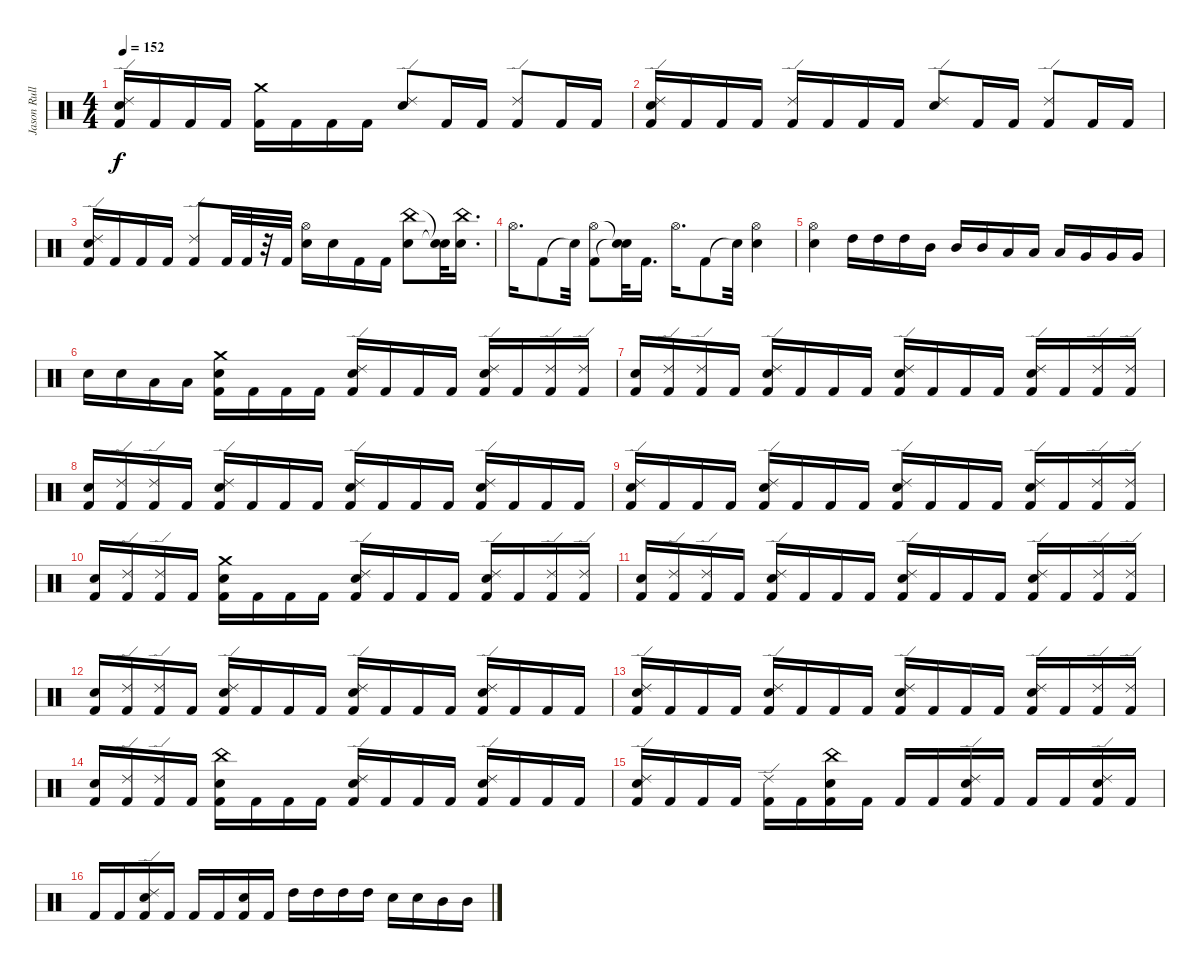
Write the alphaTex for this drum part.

\track ("Jason Rullo" "Jason Rull") {instrument percussion}
\staff {score}
\articulation defaults
\ts (4 4)
\tempo 152
\clef neutral
\ks c
("Electric Snare (hit)" "Ride (edge) 2" "Kick (hit) 2").16{dy f} "Kick (hit) 2".16 "Kick (hit) 2".16 "Kick (hit) 2".16 ("Crash medium (hit)" "Kick (hit) 2").16 "Kick (hit) 2".16 "Kick (hit) 2".16 "Kick (hit) 2".16 ("Electric Snare (hit)" "Ride (edge) 2").8 "Kick (hit) 2".16 "Kick (hit) 2".16 ("Kick (hit) 2" "Ride (edge) 2").8 "Kick (hit) 2".16 "Kick (hit) 2".16 |
("Kick (hit) 2" "Electric Snare (hit)" "Ride (edge) 2").16 "Kick (hit) 2".16 "Kick (hit) 2".16 "Kick (hit) 2".16 ("Ride (edge) 2" "Kick (hit) 2").16 "Kick (hit) 2".16 "Kick (hit) 2".16 "Kick (hit) 2".16 ("Electric Snare (hit)" "Ride (edge) 2").8 "Kick (hit) 2".16 "Kick (hit) 2".16 ("Kick (hit) 2" "Ride (edge) 2").8 "Kick (hit) 2".16 "Kick (hit) 2".16 |
("Kick (hit) 2" "Electric Snare (hit)" "Ride (edge) 2").16 "Kick (hit) 2".16 "Kick (hit) 2".16 "Kick (hit) 2".16 ("Kick (hit) 2" "Ride (edge) 2").8 "Kick (hit) 2".32 "Kick (hit) 2".32 r.32 "Kick (hit) 2".32 ("Hi-Hat (open)" "Electric Snare (hit)").16 "Electric Snare (hit)".16 "Kick (hit) 2".16 "Kick (hit) 2".16 ("China (hit)" "Electric Snare (hit)").8 ("Snare (hit)"{t} "Snare (hit)"{t}).32 ("China (hit)" "Electric Snare (hit)").16{d} |
"Hi-Hat (open)".16{d} "Kick (hit) 2".8 "Snare (hit)"{t}.32 ("Hi-Hat (open)" "Kick (hit) 2").8 ("Snare (hit)"{t} "Snare (hit)"{t}).32 "Kick (hit) 2".16{d} "Hi-Hat (open)".16{d} "Kick (hit) 2".8 "Snare (hit)"{t}.32 ("Hi-Hat (open)" "Electric Snare (hit)").4 |
("Hi-Hat (open)" "Electric Snare (hit)").4 "High Tom (hit)".16 "High Tom (hit)".16 "High Tom (hit)".16 "Mid Tom (hit)".16 "Mid Tom (hit)".16 "Mid Tom (hit)".16 "Low Tom (hit)".16 "Low Tom (hit)".16 "Low Tom (hit)".16 "Very Low Tom (hit)".16 "Very Low Tom (hit)".16 "Very Low Tom (hit)".16 |
"Electric Snare (hit)".16 "Electric Snare (hit)".16 "Low Tom (hit)".16 "Low Tom (hit)".16 ("Crash medium (hit)" "Electric Snare (hit)" "Kick (hit) 2").16 "Kick (hit) 2".16 "Kick (hit) 2".16 "Kick (hit) 2".16 ("Ride (edge) 2" "Electric Snare (hit)" "Kick (hit) 2").16 "Kick (hit) 2".16 "Kick (hit) 2".16 "Kick (hit) 2".16 ("Ride (edge) 2" "Electric Snare (hit)" "Kick (hit) 2").16 "Kick (hit) 2".16 ("Ride (edge) 2" "Kick (hit) 2").16 ("Ride (edge) 2" "Kick (hit) 2").16 |
("Electric Snare (hit)" "Kick (hit) 2").16 ("Ride (edge) 2" "Kick (hit) 2").16 ("Ride (edge) 2" "Kick (hit) 2").16 "Kick (hit) 2".16 ("Ride (edge) 2" "Electric Snare (hit)" "Kick (hit) 2").16 "Kick (hit) 2".16 "Kick (hit) 2".16 "Kick (hit) 2".16 ("Ride (edge) 2" "Electric Snare (hit)" "Kick (hit) 2").16 "Kick (hit) 2".16 "Kick (hit) 2".16 "Kick (hit) 2".16 ("Ride (edge) 2" "Electric Snare (hit)" "Kick (hit) 2").16 "Kick (hit) 2".16 ("Ride (edge) 2" "Kick (hit) 2").16 ("Ride (edge) 2" "Kick (hit) 2").16 |
("Electric Snare (hit)" "Kick (hit) 2").16 ("Ride (edge) 2" "Kick (hit) 2").16 ("Ride (edge) 2" "Kick (hit) 2").16 "Kick (hit) 2".16 ("Ride (edge) 2" "Electric Snare (hit)" "Kick (hit) 2").16 "Kick (hit) 2".16 "Kick (hit) 2".16 "Kick (hit) 2".16 ("Ride (edge) 2" "Electric Snare (hit)" "Kick (hit) 2").16 "Kick (hit) 2".16 "Kick (hit) 2".16 "Kick (hit) 2".16 ("Ride (edge) 2" "Electric Snare (hit)" "Kick (hit) 2").16 "Kick (hit) 2".16 "Kick (hit) 2".16 "Kick (hit) 2".16 |
("Ride (edge) 2" "Electric Snare (hit)" "Kick (hit) 2").16 "Kick (hit) 2".16 "Kick (hit) 2".16 "Kick (hit) 2".16 ("Ride (edge) 2" "Electric Snare (hit)" "Kick (hit) 2").16 "Kick (hit) 2".16 "Kick (hit) 2".16 "Kick (hit) 2".16 ("Ride (edge) 2" "Electric Snare (hit)" "Kick (hit) 2").16 "Kick (hit) 2".16 "Kick (hit) 2".16 "Kick (hit) 2".16 ("Ride (edge) 2" "Electric Snare (hit)" "Kick (hit) 2").16 "Kick (hit) 2".16 ("Ride (edge) 2" "Kick (hit) 2").16 ("Ride (edge) 2" "Kick (hit) 2").16 |
("Electric Snare (hit)" "Kick (hit) 2").16 ("Ride (edge) 2" "Kick (hit) 2").16 ("Ride (edge) 2" "Kick (hit) 2").16 "Kick (hit) 2".16 ("Crash medium (hit)" "Electric Snare (hit)" "Kick (hit) 2").16 "Kick (hit) 2".16 "Kick (hit) 2".16 "Kick (hit) 2".16 ("Ride (edge) 2" "Electric Snare (hit)" "Kick (hit) 2").16 "Kick (hit) 2".16 "Kick (hit) 2".16 "Kick (hit) 2".16 ("Ride (edge) 2" "Electric Snare (hit)" "Kick (hit) 2").16 "Kick (hit) 2".16 ("Ride (edge) 2" "Kick (hit) 2").16 ("Ride (edge) 2" "Kick (hit) 2").16 |
("Electric Snare (hit)" "Kick (hit) 2").16 ("Ride (edge) 2" "Kick (hit) 2").16 ("Ride (edge) 2" "Kick (hit) 2").16 "Kick (hit) 2".16 ("Ride (edge) 2" "Electric Snare (hit)" "Kick (hit) 2").16 "Kick (hit) 2".16 "Kick (hit) 2".16 "Kick (hit) 2".16 ("Ride (edge) 2" "Electric Snare (hit)" "Kick (hit) 2").16 "Kick (hit) 2".16 "Kick (hit) 2".16 "Kick (hit) 2".16 ("Ride (edge) 2" "Electric Snare (hit)" "Kick (hit) 2").16 "Kick (hit) 2".16 ("Ride (edge) 2" "Kick (hit) 2").16 ("Ride (edge) 2" "Kick (hit) 2").16 |
("Electric Snare (hit)" "Kick (hit) 2").16 ("Ride (edge) 2" "Kick (hit) 2").16 ("Ride (edge) 2" "Kick (hit) 2").16 "Kick (hit) 2".16 ("Ride (edge) 2" "Electric Snare (hit)" "Kick (hit) 2").16 "Kick (hit) 2".16 "Kick (hit) 2".16 "Kick (hit) 2".16 ("Ride (edge) 2" "Electric Snare (hit)" "Kick (hit) 2").16 "Kick (hit) 2".16 "Kick (hit) 2".16 "Kick (hit) 2".16 ("Ride (edge) 2" "Electric Snare (hit)" "Kick (hit) 2").16 "Kick (hit) 2".16 "Kick (hit) 2".16 "Kick (hit) 2".16 |
("Ride (edge) 2" "Electric Snare (hit)" "Kick (hit) 2").16 "Kick (hit) 2".16 "Kick (hit) 2".16 "Kick (hit) 2".16 ("Ride (edge) 2" "Electric Snare (hit)" "Kick (hit) 2").16 "Kick (hit) 2".16 "Kick (hit) 2".16 "Kick (hit) 2".16 ("Ride (edge) 2" "Electric Snare (hit)" "Kick (hit) 2").16 "Kick (hit) 2".16 "Kick (hit) 2".16 "Kick (hit) 2".16 ("Ride (edge) 2" "Electric Snare (hit)" "Kick (hit) 2").16 "Kick (hit) 2".16 ("Ride (edge) 2" "Kick (hit) 2").16 ("Ride (edge) 2" "Kick (hit) 2").16 |
("Electric Snare (hit)" "Kick (hit) 2").16 ("Ride (edge) 2" "Kick (hit) 2").16 ("Ride (edge) 2" "Kick (hit) 2").16 "Kick (hit) 2".16 ("China (hit)" "Electric Snare (hit)" "Kick (hit) 2").16 "Kick (hit) 2".16 "Kick (hit) 2".16 "Kick (hit) 2".16 ("Ride (edge) 2" "Electric Snare (hit)" "Kick (hit) 2").16 "Kick (hit) 2".16 "Kick (hit) 2".16 "Kick (hit) 2".16 ("Ride (edge) 2" "Electric Snare (hit)" "Kick (hit) 2").16 "Kick (hit) 2".16 "Kick (hit) 2".16 "Kick (hit) 2".16 |
("Ride (edge) 2" "Electric Snare (hit)" "Kick (hit) 2").16 "Kick (hit) 2".16 "Kick (hit) 2".16 "Kick (hit) 2".16 ("Ride (edge) 2" "Kick (hit) 2").16 "Kick (hit) 2".16 ("China (hit)" "Electric Snare (hit)" "Kick (hit) 2").16 "Kick (hit) 2".16 "Kick (hit) 2".16 "Kick (hit) 2".16 ("Ride (edge) 2" "Electric Snare (hit)" "Kick (hit) 2").16 "Kick (hit) 2".16 "Kick (hit) 2".16 "Kick (hit) 2".16 ("Ride (edge) 2" "Electric Snare (hit)" "Kick (hit) 2").16 "Kick (hit) 2".16 |
"Kick (hit) 2".16 "Kick (hit) 2".16 ("Ride (edge) 2" "Electric Snare (hit)" "Kick (hit) 2").16 "Kick (hit) 2".16 "Kick (hit) 2".16 "Kick (hit) 2".16 ("Electric Snare (hit)" "Kick (hit) 2").16 "Kick (hit) 2".16 "High Tom (hit)".16 "High Tom (hit)".16 "High Tom (hit)".16 "High Tom (hit)".16 "Electric Snare (hit)".16 "Electric Snare (hit)".16 "Mid Tom (hit)".16 "Mid Tom (hit)".16
